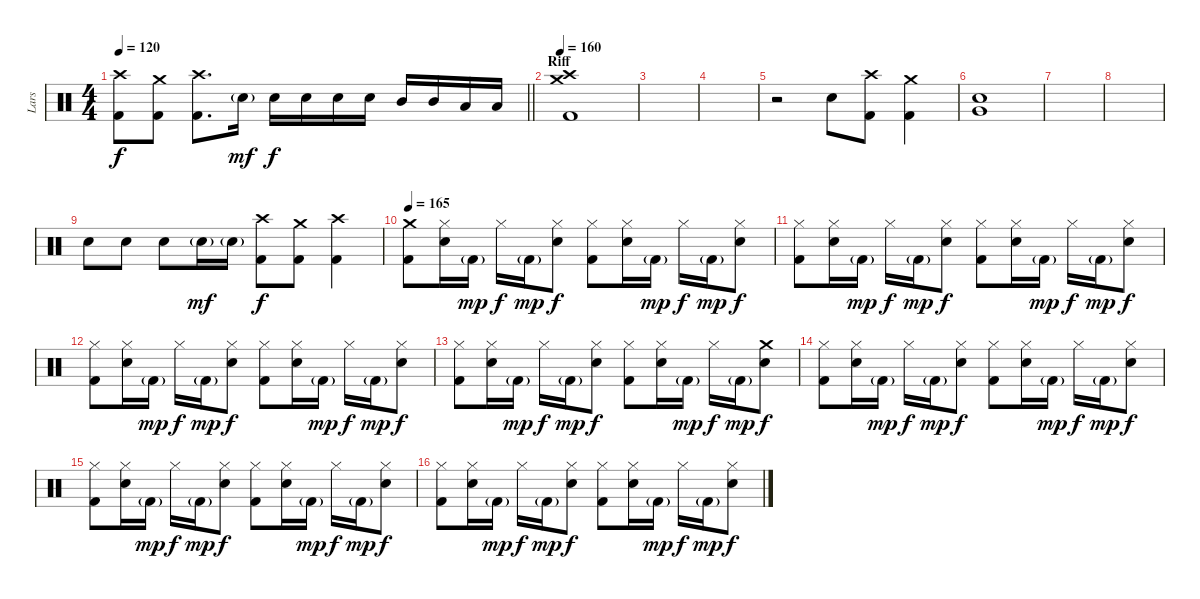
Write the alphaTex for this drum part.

\track ("Lars" "Lars") {instrument percussion}
\staff {score}
\articulation defaults
\ts (4 4)
\tempo 120
\clef neutral
\barLineRight lightlight
\ks c
("Crash high (hit)" "Kick (hit) 2").8{dy f} ("Crash medium (hit)" "Kick (hit) 2").8 ("Crash high (hit)" "Kick (hit) 2").8{d} "Snare (hit) 2"{g}.16{dy mf} "Snare (hit) 2".16{dy f} "Snare (hit) 2".16 "Snare (hit) 2".16 "Snare (hit) 2".16 "Mid Tom (hit)".16 "Mid Tom (hit)".16 "Low Tom (hit)".16 "Low Tom (hit)".16 |
\section ("" "Riff")
\tempo 160
("Crash high (hit)" "Crash medium (hit)" "Kick (hit) 2").1 |
|
|
r.2 "Snare (hit) 2".8 ("Crash high (hit)" "Kick (hit) 2").8 ("Crash medium (hit)" "Kick (hit) 2").4 |
("Very Low Tom (hit)" "Snare (hit) 2").1 |
|
|
"Snare (hit) 2".8 "Snare (hit) 2".8 "Snare (hit) 2".8 "Snare (hit) 2"{g}.16{dy mf} "Snare (hit) 2"{g}.16 ("Crash high (hit)" "Kick (hit) 2").8{dy f} ("Crash medium (hit)" "Kick (hit) 2").8 ("Crash high (hit)" "Kick (hit) 2").4 |
\tempo 165
("Crash medium (hit)" "Kick (hit) 2").8 ("Hi-Hat (closed)" "Snare (hit) 2").16 "Kick (hit) 2"{g}.16{dy mp} "Hi-Hat (closed)".16{dy f} "Kick (hit) 2"{g}.16{dy mp} ("Hi-Hat (closed)" "Snare (hit) 2").8{dy f} ("Hi-Hat (closed)" "Kick (hit) 2").8 ("Hi-Hat (closed)" "Snare (hit) 2").16 "Kick (hit) 2"{g}.16{dy mp} "Hi-Hat (closed)".16{dy f} "Kick (hit) 2"{g}.16{dy mp} ("Hi-Hat (closed)" "Snare (hit) 2").8{dy f} |
("Hi-Hat (closed)" "Kick (hit) 2").8 ("Hi-Hat (closed)" "Snare (hit) 2").16 "Kick (hit) 2"{g}.16{dy mp} "Hi-Hat (closed)".16{dy f} "Kick (hit) 2"{g}.16{dy mp} ("Hi-Hat (closed)" "Snare (hit) 2").8{dy f} ("Hi-Hat (closed)" "Kick (hit) 2").8 ("Hi-Hat (closed)" "Snare (hit) 2").16 "Kick (hit) 2"{g}.16{dy mp} "Hi-Hat (closed)".16{dy f} "Kick (hit) 2"{g}.16{dy mp} ("Hi-Hat (closed)" "Snare (hit) 2").8{dy f} |
("Hi-Hat (closed)" "Kick (hit) 2").8 ("Hi-Hat (closed)" "Snare (hit) 2").16 "Kick (hit) 2"{g}.16{dy mp} "Hi-Hat (closed)".16{dy f} "Kick (hit) 2"{g}.16{dy mp} ("Hi-Hat (closed)" "Snare (hit) 2").8{dy f} ("Hi-Hat (closed)" "Kick (hit) 2").8 ("Hi-Hat (closed)" "Snare (hit) 2").16 "Kick (hit) 2"{g}.16{dy mp} "Hi-Hat (closed)".16{dy f} "Kick (hit) 2"{g}.16{dy mp} ("Hi-Hat (closed)" "Snare (hit) 2").8{dy f} |
("Hi-Hat (closed)" "Kick (hit) 2").8 ("Hi-Hat (closed)" "Snare (hit) 2").16 "Kick (hit) 2"{g}.16{dy mp} "Hi-Hat (closed)".16{dy f} "Kick (hit) 2"{g}.16{dy mp} ("Hi-Hat (closed)" "Snare (hit) 2").8{dy f} ("Hi-Hat (closed)" "Kick (hit) 2").8 ("Hi-Hat (closed)" "Snare (hit) 2").16 "Kick (hit) 2"{g}.16{dy mp} "Hi-Hat (closed)".16{dy f} "Kick (hit) 2"{g}.16{dy mp} ("Crash medium (hit)" "Snare (hit) 2").8{dy f} |
("Hi-Hat (closed)" "Kick (hit) 2").8 ("Hi-Hat (closed)" "Snare (hit) 2").16 "Kick (hit) 2"{g}.16{dy mp} "Hi-Hat (closed)".16{dy f} "Kick (hit) 2"{g}.16{dy mp} ("Hi-Hat (closed)" "Snare (hit) 2").8{dy f} ("Hi-Hat (closed)" "Kick (hit) 2").8 ("Hi-Hat (closed)" "Snare (hit) 2").16 "Kick (hit) 2"{g}.16{dy mp} "Hi-Hat (closed)".16{dy f} "Kick (hit) 2"{g}.16{dy mp} ("Hi-Hat (closed)" "Snare (hit) 2").8{dy f} |
("Hi-Hat (closed)" "Kick (hit) 2").8 ("Hi-Hat (closed)" "Snare (hit) 2").16 "Kick (hit) 2"{g}.16{dy mp} "Hi-Hat (closed)".16{dy f} "Kick (hit) 2"{g}.16{dy mp} ("Hi-Hat (closed)" "Snare (hit) 2").8{dy f} ("Hi-Hat (closed)" "Kick (hit) 2").8 ("Hi-Hat (closed)" "Snare (hit) 2").16 "Kick (hit) 2"{g}.16{dy mp} "Hi-Hat (closed)".16{dy f} "Kick (hit) 2"{g}.16{dy mp} ("Hi-Hat (closed)" "Snare (hit) 2").8{dy f} |
("Hi-Hat (closed)" "Kick (hit) 2").8 ("Hi-Hat (closed)" "Snare (hit) 2").16 "Kick (hit) 2"{g}.16{dy mp} "Hi-Hat (closed)".16{dy f} "Kick (hit) 2"{g}.16{dy mp} ("Hi-Hat (closed)" "Snare (hit) 2").8{dy f} ("Hi-Hat (closed)" "Kick (hit) 2").8 ("Hi-Hat (closed)" "Snare (hit) 2").16 "Kick (hit) 2"{g}.16{dy mp} "Hi-Hat (closed)".16{dy f} "Kick (hit) 2"{g}.16{dy mp} ("Hi-Hat (closed)" "Snare (hit) 2").8{dy f}
